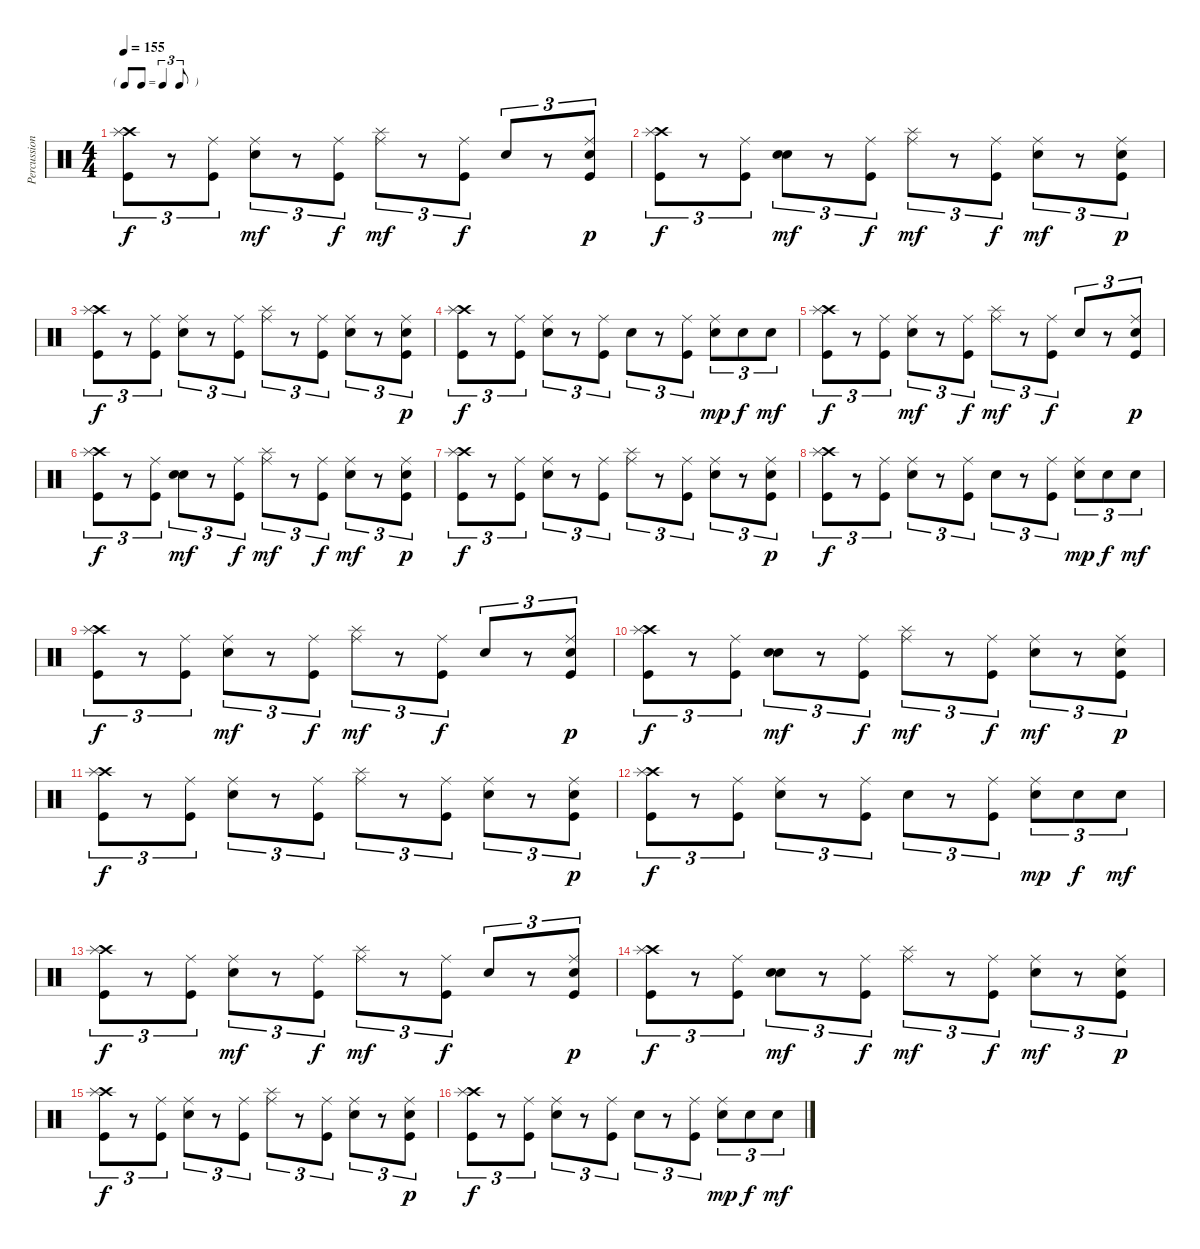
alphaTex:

\track ("Percussion" "Percussion") {instrument percussion}
\staff {score}
\articulation defaults
\ts (4 4)
\tf triplet8th
\tempo 155
\clef neutral
\ks c
("Crash high (hit)" "Splash (hit)" "Kick (hit)").8{tu (3 2) dy f} r.8{tu (3 2)} ("Ride (middle)" "Kick (hit)").8{tu (3 2)} ("Ride (middle)" "Electric Snare (hit)").8{tu (3 2) dy mf} r.8{tu (3 2)} ("Ride (middle)" "Kick (hit)").8{tu (3 2) dy f} ("Ride (middle)" "Splash (hit)").8{tu (3 2) dy mf} r.8{tu (3 2)} ("Ride (middle)" "Kick (hit)").8{tu (3 2) dy f} "Electric Snare (hit)".8{tu (3 2)} r.8{tu (3 2)} ("Ride (middle)" "Electric Snare (hit)" "Kick (hit)").8{tu (3 2) dy p} |
("Crash high (hit)" "Splash (hit)" "Kick (hit)").8{tu (3 2) dy f} r.8{tu (3 2)} ("Ride (middle)" "Kick (hit)").8{tu (3 2)} ("Snare (hit)" "Electric Snare (hit)").8{tu (3 2) dy mf} r.8{tu (3 2)} ("Ride (middle)" "Kick (hit)").8{tu (3 2) dy f} ("Ride (middle)" "Splash (hit)").8{tu (3 2) dy mf} r.8{tu (3 2)} ("Ride (middle)" "Kick (hit)").8{tu (3 2) dy f} ("Ride (middle)" "Electric Snare (hit)").8{tu (3 2) dy mf} r.8{tu (3 2)} ("Ride (middle)" "Electric Snare (hit)" "Kick (hit)").8{tu (3 2) dy p} |
("Crash high (hit)" "Splash (hit)" "Kick (hit)").8{tu (3 2) dy f} r.8{tu (3 2)} ("Ride (middle)" "Kick (hit)").8{tu (3 2)} ("Ride (middle)" "Electric Snare (hit)").8{tu (3 2)} r.8{tu (3 2)} ("Ride (middle)" "Kick (hit)").8{tu (3 2)} ("Ride (middle)" "Splash (hit)").8{tu (3 2)} r.8{tu (3 2)} ("Ride (middle)" "Kick (hit)").8{tu (3 2)} ("Ride (middle)" "Electric Snare (hit)").8{tu (3 2)} r.8{tu (3 2)} ("Ride (middle)" "Electric Snare (hit)" "Kick (hit)").8{tu (3 2) dy p} |
("Crash high (hit)" "Splash (hit)" "Kick (hit)").8{tu (3 2) dy f} r.8{tu (3 2)} ("Ride (middle)" "Kick (hit)").8{tu (3 2)} ("Ride (middle)" "Electric Snare (hit)").8{tu (3 2)} r.8{tu (3 2)} ("Ride (middle)" "Kick (hit)").8{tu (3 2)} "Electric Snare (hit)".8{tu (3 2)} r.8{tu (3 2)} ("Ride (middle)" "Kick (hit)").8{tu (3 2)} ("Ride (middle)" "Electric Snare (hit)").8{tu (3 2) dy mp} "Electric Snare (hit)".8{tu (3 2) dy f} "Electric Snare (hit)".8{tu (3 2) dy mf} |
("Crash high (hit)" "Splash (hit)" "Kick (hit)").8{tu (3 2) dy f} r.8{tu (3 2)} ("Ride (middle)" "Kick (hit)").8{tu (3 2)} ("Ride (middle)" "Electric Snare (hit)").8{tu (3 2) dy mf} r.8{tu (3 2)} ("Ride (middle)" "Kick (hit)").8{tu (3 2) dy f} ("Ride (middle)" "Splash (hit)").8{tu (3 2) dy mf} r.8{tu (3 2)} ("Ride (middle)" "Kick (hit)").8{tu (3 2) dy f} "Electric Snare (hit)".8{tu (3 2)} r.8{tu (3 2)} ("Ride (middle)" "Electric Snare (hit)" "Kick (hit)").8{tu (3 2) dy p} |
("Crash high (hit)" "Splash (hit)" "Kick (hit)").8{tu (3 2) dy f} r.8{tu (3 2)} ("Ride (middle)" "Kick (hit)").8{tu (3 2)} ("Snare (hit)" "Electric Snare (hit)").8{tu (3 2) dy mf} r.8{tu (3 2)} ("Ride (middle)" "Kick (hit)").8{tu (3 2) dy f} ("Ride (middle)" "Splash (hit)").8{tu (3 2) dy mf} r.8{tu (3 2)} ("Ride (middle)" "Kick (hit)").8{tu (3 2) dy f} ("Ride (middle)" "Electric Snare (hit)").8{tu (3 2) dy mf} r.8{tu (3 2)} ("Ride (middle)" "Electric Snare (hit)" "Kick (hit)").8{tu (3 2) dy p} |
("Crash high (hit)" "Splash (hit)" "Kick (hit)").8{tu (3 2) dy f} r.8{tu (3 2)} ("Ride (middle)" "Kick (hit)").8{tu (3 2)} ("Ride (middle)" "Electric Snare (hit)").8{tu (3 2)} r.8{tu (3 2)} ("Ride (middle)" "Kick (hit)").8{tu (3 2)} ("Ride (middle)" "Splash (hit)").8{tu (3 2)} r.8{tu (3 2)} ("Ride (middle)" "Kick (hit)").8{tu (3 2)} ("Ride (middle)" "Electric Snare (hit)").8{tu (3 2)} r.8{tu (3 2)} ("Ride (middle)" "Electric Snare (hit)" "Kick (hit)").8{tu (3 2) dy p} |
("Crash high (hit)" "Splash (hit)" "Kick (hit)").8{tu (3 2) dy f} r.8{tu (3 2)} ("Ride (middle)" "Kick (hit)").8{tu (3 2)} ("Ride (middle)" "Electric Snare (hit)").8{tu (3 2)} r.8{tu (3 2)} ("Ride (middle)" "Kick (hit)").8{tu (3 2)} "Electric Snare (hit)".8{tu (3 2)} r.8{tu (3 2)} ("Ride (middle)" "Kick (hit)").8{tu (3 2)} ("Ride (middle)" "Electric Snare (hit)").8{tu (3 2) dy mp} "Electric Snare (hit)".8{tu (3 2) dy f} "Electric Snare (hit)".8{tu (3 2) dy mf} |
("Crash high (hit)" "Splash (hit)" "Kick (hit)").8{tu (3 2) dy f} r.8{tu (3 2)} ("Ride (middle)" "Kick (hit)").8{tu (3 2)} ("Ride (middle)" "Electric Snare (hit)").8{tu (3 2) dy mf} r.8{tu (3 2)} ("Ride (middle)" "Kick (hit)").8{tu (3 2) dy f} ("Ride (middle)" "Splash (hit)").8{tu (3 2) dy mf} r.8{tu (3 2)} ("Ride (middle)" "Kick (hit)").8{tu (3 2) dy f} "Electric Snare (hit)".8{tu (3 2)} r.8{tu (3 2)} ("Ride (middle)" "Electric Snare (hit)" "Kick (hit)").8{tu (3 2) dy p} |
("Crash high (hit)" "Splash (hit)" "Kick (hit)").8{tu (3 2) dy f} r.8{tu (3 2)} ("Ride (middle)" "Kick (hit)").8{tu (3 2)} ("Snare (hit)" "Electric Snare (hit)").8{tu (3 2) dy mf} r.8{tu (3 2)} ("Ride (middle)" "Kick (hit)").8{tu (3 2) dy f} ("Ride (middle)" "Splash (hit)").8{tu (3 2) dy mf} r.8{tu (3 2)} ("Ride (middle)" "Kick (hit)").8{tu (3 2) dy f} ("Ride (middle)" "Electric Snare (hit)").8{tu (3 2) dy mf} r.8{tu (3 2)} ("Ride (middle)" "Electric Snare (hit)" "Kick (hit)").8{tu (3 2) dy p} |
("Crash high (hit)" "Splash (hit)" "Kick (hit)").8{tu (3 2) dy f} r.8{tu (3 2)} ("Ride (middle)" "Kick (hit)").8{tu (3 2)} ("Ride (middle)" "Electric Snare (hit)").8{tu (3 2)} r.8{tu (3 2)} ("Ride (middle)" "Kick (hit)").8{tu (3 2)} ("Ride (middle)" "Splash (hit)").8{tu (3 2)} r.8{tu (3 2)} ("Ride (middle)" "Kick (hit)").8{tu (3 2)} ("Ride (middle)" "Electric Snare (hit)").8{tu (3 2)} r.8{tu (3 2)} ("Ride (middle)" "Electric Snare (hit)" "Kick (hit)").8{tu (3 2) dy p} |
("Crash high (hit)" "Splash (hit)" "Kick (hit)").8{tu (3 2) dy f} r.8{tu (3 2)} ("Ride (middle)" "Kick (hit)").8{tu (3 2)} ("Ride (middle)" "Electric Snare (hit)").8{tu (3 2)} r.8{tu (3 2)} ("Ride (middle)" "Kick (hit)").8{tu (3 2)} "Electric Snare (hit)".8{tu (3 2)} r.8{tu (3 2)} ("Ride (middle)" "Kick (hit)").8{tu (3 2)} ("Ride (middle)" "Electric Snare (hit)").8{tu (3 2) dy mp} "Electric Snare (hit)".8{tu (3 2) dy f} "Electric Snare (hit)".8{tu (3 2) dy mf} |
("Crash high (hit)" "Splash (hit)" "Kick (hit)").8{tu (3 2) dy f} r.8{tu (3 2)} ("Ride (middle)" "Kick (hit)").8{tu (3 2)} ("Ride (middle)" "Electric Snare (hit)").8{tu (3 2) dy mf} r.8{tu (3 2)} ("Ride (middle)" "Kick (hit)").8{tu (3 2) dy f} ("Ride (middle)" "Splash (hit)").8{tu (3 2) dy mf} r.8{tu (3 2)} ("Ride (middle)" "Kick (hit)").8{tu (3 2) dy f} "Electric Snare (hit)".8{tu (3 2)} r.8{tu (3 2)} ("Ride (middle)" "Electric Snare (hit)" "Kick (hit)").8{tu (3 2) dy p} |
("Crash high (hit)" "Splash (hit)" "Kick (hit)").8{tu (3 2) dy f} r.8{tu (3 2)} ("Ride (middle)" "Kick (hit)").8{tu (3 2)} ("Snare (hit)" "Electric Snare (hit)").8{tu (3 2) dy mf} r.8{tu (3 2)} ("Ride (middle)" "Kick (hit)").8{tu (3 2) dy f} ("Ride (middle)" "Splash (hit)").8{tu (3 2) dy mf} r.8{tu (3 2)} ("Ride (middle)" "Kick (hit)").8{tu (3 2) dy f} ("Ride (middle)" "Electric Snare (hit)").8{tu (3 2) dy mf} r.8{tu (3 2)} ("Ride (middle)" "Electric Snare (hit)" "Kick (hit)").8{tu (3 2) dy p} |
("Crash high (hit)" "Splash (hit)" "Kick (hit)").8{tu (3 2) dy f} r.8{tu (3 2)} ("Ride (middle)" "Kick (hit)").8{tu (3 2)} ("Ride (middle)" "Electric Snare (hit)").8{tu (3 2)} r.8{tu (3 2)} ("Ride (middle)" "Kick (hit)").8{tu (3 2)} ("Ride (middle)" "Splash (hit)").8{tu (3 2)} r.8{tu (3 2)} ("Ride (middle)" "Kick (hit)").8{tu (3 2)} ("Ride (middle)" "Electric Snare (hit)").8{tu (3 2)} r.8{tu (3 2)} ("Ride (middle)" "Electric Snare (hit)" "Kick (hit)").8{tu (3 2) dy p} |
("Crash high (hit)" "Splash (hit)" "Kick (hit)").8{tu (3 2) dy f} r.8{tu (3 2)} ("Ride (middle)" "Kick (hit)").8{tu (3 2)} ("Ride (middle)" "Electric Snare (hit)").8{tu (3 2)} r.8{tu (3 2)} ("Ride (middle)" "Kick (hit)").8{tu (3 2)} "Electric Snare (hit)".8{tu (3 2)} r.8{tu (3 2)} ("Ride (middle)" "Kick (hit)").8{tu (3 2)} ("Ride (middle)" "Electric Snare (hit)").8{tu (3 2) dy mp} "Electric Snare (hit)".8{tu (3 2) dy f} "Electric Snare (hit)".8{tu (3 2) dy mf}
